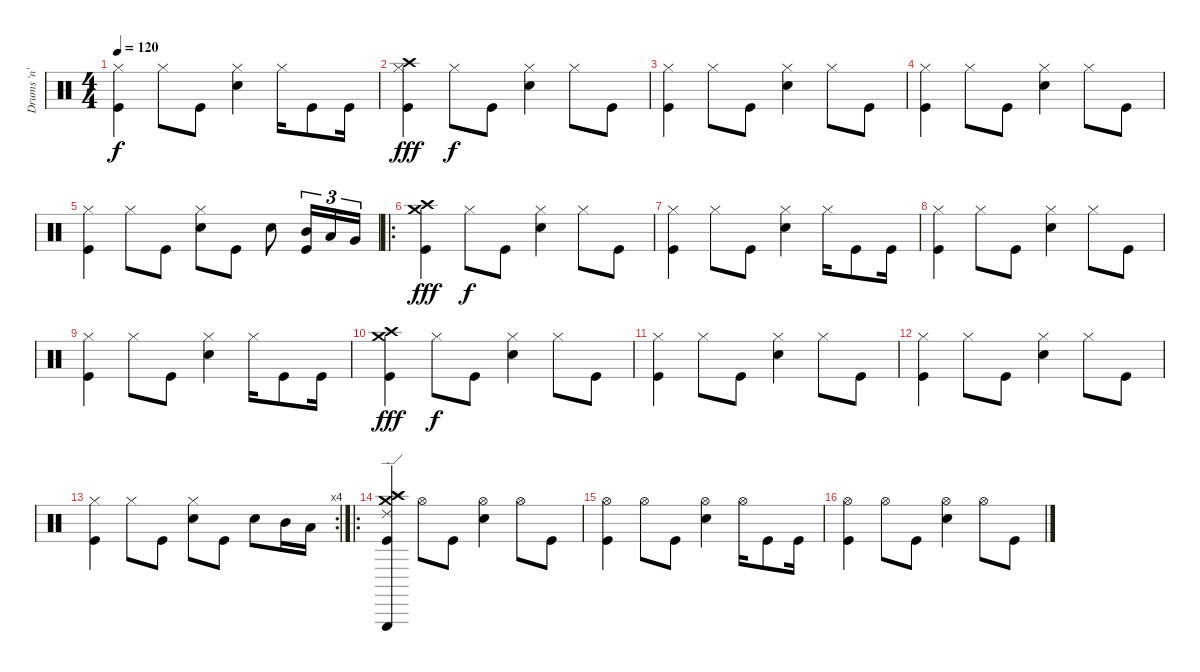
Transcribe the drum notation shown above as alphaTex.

\track ("Drums 'n' Such" "Drums 'n' ") {instrument percussion}
\staff {score}
\articulation defaults
\ts (4 4)
\tempo 120
\clef neutral
\ks c
("Hi-Hat (closed)" "Kick (hit)").4{dy f} "Hi-Hat (closed)".8 "Kick (hit)".8 ("Hi-Hat (closed)" "Snare (hit) 2").4 "Hi-Hat (closed)".16 "Kick (hit)".8 "Kick (hit)".16 |
("Hi-Hat (closed)" "Crash high (hit)" "Kick (hit)").4{dy fff} "Hi-Hat (closed)".8{dy f} "Kick (hit)".8 ("Hi-Hat (closed)" "Snare (hit) 2").4 "Hi-Hat (closed)".8 "Kick (hit)".8 |
("Hi-Hat (closed)" "Kick (hit)").4 "Hi-Hat (closed)".8 "Kick (hit)".8 ("Hi-Hat (closed)" "Snare (hit) 2").4 "Hi-Hat (closed)".8 "Kick (hit)".8 |
("Hi-Hat (closed)" "Kick (hit)").4 "Hi-Hat (closed)".8 "Kick (hit)".8 ("Hi-Hat (closed)" "Snare (hit) 2").4 "Hi-Hat (closed)".8 "Kick (hit)".8 |
("Hi-Hat (closed)" "Kick (hit)").4 "Hi-Hat (closed)".8 "Kick (hit)".8 ("Hi-Hat (closed)" "Snare (hit) 2").8 "Kick (hit)".8 "Snare (hit) 2".8 ("Kick (hit)" "Mid Tom (hit)").16{tu (3 2)} "Low Tom (hit)".16{tu (3 2)} "Very Low Tom (hit)".16{tu (3 2)} |
\ro
("Crash high (hit)" "Crash medium (hit)" "Kick (hit)").4{dy fff} "Hi-Hat (closed)".8{dy f} "Kick (hit)".8 ("Hi-Hat (closed)" "Snare (hit) 2").4 "Hi-Hat (closed)".8 "Kick (hit)".8 |
("Hi-Hat (closed)" "Kick (hit)").4 "Hi-Hat (closed)".8 "Kick (hit)".8 ("Hi-Hat (closed)" "Snare (hit) 2").4 "Hi-Hat (closed)".16 "Kick (hit)".8 "Kick (hit)".16 |
("Hi-Hat (closed)" "Kick (hit)").4 "Hi-Hat (closed)".8 "Kick (hit)".8 ("Hi-Hat (closed)" "Snare (hit) 2").4 "Hi-Hat (closed)".8 "Kick (hit)".8 |
("Hi-Hat (closed)" "Kick (hit)").4 "Hi-Hat (closed)".8 "Kick (hit)".8 ("Hi-Hat (closed)" "Snare (hit) 2").4 "Hi-Hat (closed)".16 "Kick (hit)".8 "Kick (hit)".16 |
("Crash high (hit)" "Crash medium (hit)" "Kick (hit)").4{dy fff} "Hi-Hat (closed)".8{dy f} "Kick (hit)".8 ("Hi-Hat (closed)" "Snare (hit) 2").4 "Hi-Hat (closed)".8 "Kick (hit)".8 |
("Hi-Hat (closed)" "Kick (hit)").4 "Hi-Hat (closed)".8 "Kick (hit)".8 ("Hi-Hat (closed)" "Snare (hit) 2").4 "Hi-Hat (closed)".8 "Kick (hit)".8 |
("Hi-Hat (closed)" "Kick (hit)").4 "Hi-Hat (closed)".8 "Kick (hit)".8 ("Hi-Hat (closed)" "Snare (hit) 2").4 "Hi-Hat (closed)".8 "Kick (hit)".8 |
\rc 4
("Hi-Hat (closed)" "Kick (hit)").4 "Hi-Hat (closed)".8 "Kick (hit)".8 ("Hi-Hat (closed)" "Snare (hit) 2").8 "Kick (hit)".8 "Snare (hit) 2".8 "Mid Tom (hit)".16 "Low Tom (hit)".16 |
\ro
("Crash high (hit)" "Crash medium (hit)" "Splash (hit)" "Kick (hit)" "Triangle (hit)" "Ride (edge) 2").4 "Hi-Hat (open)".8 "Kick (hit)".8 ("Hi-Hat (open)" "Snare (hit) 2").4 "Hi-Hat (open)".8 "Kick (hit)".8 |
("Hi-Hat (open)" "Kick (hit)").4 "Hi-Hat (open)".8 "Kick (hit)".8 ("Hi-Hat (open)" "Snare (hit) 2").4 "Hi-Hat (open)".16 "Kick (hit)".8 "Kick (hit)".16 |
("Hi-Hat (open)" "Kick (hit)").4 "Hi-Hat (open)".8 "Kick (hit)".8 ("Hi-Hat (open)" "Snare (hit) 2").4 "Hi-Hat (open)".8 "Kick (hit)".8
